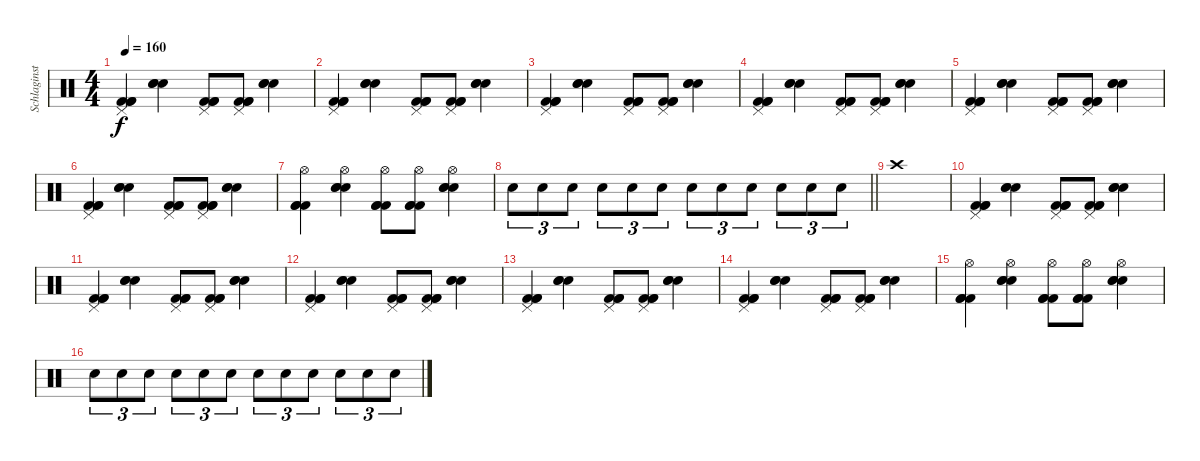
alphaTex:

\track ("Schlaginstrumente - Auswahl" "Schlaginst") {instrument percussion}
\staff {score}
\articulation defaults
\ts (4 4)
\tempo 160
\clef neutral
\ks c
("Kick (hit) 2" "Kick (hit) 2" "Kick (hit) 2" "Pedal Hi-Hat (hit)").4{dy f} ("Snare (hit) 2" "Snare (hit) 2" "Snare (hit) 2").4 ("Kick (hit) 2" "Kick (hit) 2" "Kick (hit) 2" "Pedal Hi-Hat (hit)").8 ("Kick (hit) 2" "Kick (hit) 2" "Kick (hit) 2" "Pedal Hi-Hat (hit)").8 ("Snare (hit) 2" "Snare (hit) 2" "Snare (hit) 2").4 |
("Kick (hit) 2" "Kick (hit) 2" "Kick (hit) 2" "Pedal Hi-Hat (hit)").4 ("Snare (hit) 2" "Snare (hit) 2" "Snare (hit) 2").4 ("Kick (hit) 2" "Kick (hit) 2" "Kick (hit) 2" "Pedal Hi-Hat (hit)").8 ("Kick (hit) 2" "Kick (hit) 2" "Kick (hit) 2" "Pedal Hi-Hat (hit)").8 ("Snare (hit) 2" "Snare (hit) 2" "Snare (hit) 2").4 |
("Kick (hit) 2" "Kick (hit) 2" "Kick (hit) 2" "Pedal Hi-Hat (hit)").4 ("Snare (hit) 2" "Snare (hit) 2" "Snare (hit) 2").4 ("Kick (hit) 2" "Kick (hit) 2" "Kick (hit) 2" "Pedal Hi-Hat (hit)").8 ("Kick (hit) 2" "Kick (hit) 2" "Kick (hit) 2" "Pedal Hi-Hat (hit)").8 ("Snare (hit) 2" "Snare (hit) 2" "Snare (hit) 2").4 |
("Kick (hit) 2" "Kick (hit) 2" "Kick (hit) 2" "Pedal Hi-Hat (hit)").4 ("Snare (hit) 2" "Snare (hit) 2" "Snare (hit) 2").4 ("Kick (hit) 2" "Kick (hit) 2" "Kick (hit) 2" "Pedal Hi-Hat (hit)").8 ("Kick (hit) 2" "Kick (hit) 2" "Kick (hit) 2" "Pedal Hi-Hat (hit)").8 ("Snare (hit) 2" "Snare (hit) 2" "Snare (hit) 2").4 |
("Kick (hit) 2" "Kick (hit) 2" "Kick (hit) 2" "Pedal Hi-Hat (hit)").4 ("Snare (hit) 2" "Snare (hit) 2" "Snare (hit) 2").4 ("Kick (hit) 2" "Kick (hit) 2" "Kick (hit) 2" "Pedal Hi-Hat (hit)").8 ("Kick (hit) 2" "Kick (hit) 2" "Kick (hit) 2" "Pedal Hi-Hat (hit)").8 ("Snare (hit) 2" "Snare (hit) 2" "Snare (hit) 2").4 |
("Kick (hit) 2" "Kick (hit) 2" "Kick (hit) 2" "Pedal Hi-Hat (hit)").4 ("Snare (hit) 2" "Snare (hit) 2" "Snare (hit) 2").4 ("Kick (hit) 2" "Kick (hit) 2" "Kick (hit) 2" "Pedal Hi-Hat (hit)").8 ("Kick (hit) 2" "Kick (hit) 2" "Kick (hit) 2" "Pedal Hi-Hat (hit)").8 ("Snare (hit) 2" "Snare (hit) 2" "Snare (hit) 2").4 |
("Kick (hit) 2" "Kick (hit) 2" "Kick (hit) 2" "Hi-Hat (open)").4 ("Snare (hit) 2" "Snare (hit) 2" "Snare (hit) 2" "Hi-Hat (open)").4 ("Kick (hit) 2" "Kick (hit) 2" "Kick (hit) 2" "Hi-Hat (open)").8 ("Kick (hit) 2" "Kick (hit) 2" "Kick (hit) 2" "Hi-Hat (open)").8 ("Snare (hit) 2" "Snare (hit) 2" "Snare (hit) 2" "Hi-Hat (open)").4 |
\barLineRight lightlight "Snare (hit) 2".8{tu (3 2)} "Snare (hit) 2".8{tu (3 2)} "Snare (hit) 2".8{tu (3 2)} "Snare (hit) 2".8{tu (3 2)} "Snare (hit) 2".8{tu (3 2)} "Snare (hit) 2".8{tu (3 2)} "Snare (hit) 2".8{tu (3 2)} "Snare (hit) 2".8{tu (3 2)} "Snare (hit) 2".8{tu (3 2)} "Snare (hit) 2".8{tu (3 2)} "Snare (hit) 2".8{tu (3 2)} "Snare (hit) 2".8{tu (3 2)}
|
"Crash high (hit)".1 |
("Kick (hit) 2" "Kick (hit) 2" "Kick (hit) 2" "Pedal Hi-Hat (hit)").4 ("Snare (hit) 2" "Snare (hit) 2" "Snare (hit) 2").4 ("Kick (hit) 2" "Kick (hit) 2" "Kick (hit) 2" "Pedal Hi-Hat (hit)").8 ("Kick (hit) 2" "Kick (hit) 2" "Kick (hit) 2" "Pedal Hi-Hat (hit)").8 ("Snare (hit) 2" "Snare (hit) 2" "Snare (hit) 2").4 |
("Kick (hit) 2" "Kick (hit) 2" "Kick (hit) 2" "Pedal Hi-Hat (hit)").4 ("Snare (hit) 2" "Snare (hit) 2" "Snare (hit) 2").4 ("Kick (hit) 2" "Kick (hit) 2" "Kick (hit) 2" "Pedal Hi-Hat (hit)").8 ("Kick (hit) 2" "Kick (hit) 2" "Kick (hit) 2" "Pedal Hi-Hat (hit)").8 ("Snare (hit) 2" "Snare (hit) 2" "Snare (hit) 2").4 |
("Kick (hit) 2" "Kick (hit) 2" "Kick (hit) 2" "Pedal Hi-Hat (hit)").4 ("Snare (hit) 2" "Snare (hit) 2" "Snare (hit) 2").4 ("Kick (hit) 2" "Kick (hit) 2" "Kick (hit) 2" "Pedal Hi-Hat (hit)").8 ("Kick (hit) 2" "Kick (hit) 2" "Kick (hit) 2" "Pedal Hi-Hat (hit)").8 ("Snare (hit) 2" "Snare (hit) 2" "Snare (hit) 2").4 |
("Kick (hit) 2" "Kick (hit) 2" "Kick (hit) 2" "Pedal Hi-Hat (hit)").4 ("Snare (hit) 2" "Snare (hit) 2" "Snare (hit) 2").4 ("Kick (hit) 2" "Kick (hit) 2" "Kick (hit) 2" "Pedal Hi-Hat (hit)").8 ("Kick (hit) 2" "Kick (hit) 2" "Kick (hit) 2" "Pedal Hi-Hat (hit)").8 ("Snare (hit) 2" "Snare (hit) 2" "Snare (hit) 2").4 |
("Kick (hit) 2" "Kick (hit) 2" "Kick (hit) 2" "Pedal Hi-Hat (hit)").4 ("Snare (hit) 2" "Snare (hit) 2" "Snare (hit) 2").4 ("Kick (hit) 2" "Kick (hit) 2" "Kick (hit) 2" "Pedal Hi-Hat (hit)").8 ("Kick (hit) 2" "Kick (hit) 2" "Kick (hit) 2" "Pedal Hi-Hat (hit)").8 ("Snare (hit) 2" "Snare (hit) 2" "Snare (hit) 2").4 |
("Kick (hit) 2" "Kick (hit) 2" "Kick (hit) 2" "Hi-Hat (open)").4 ("Snare (hit) 2" "Snare (hit) 2" "Snare (hit) 2" "Hi-Hat (open)").4 ("Kick (hit) 2" "Kick (hit) 2" "Kick (hit) 2" "Hi-Hat (open)").8 ("Kick (hit) 2" "Kick (hit) 2" "Kick (hit) 2" "Hi-Hat (open)").8 ("Snare (hit) 2" "Snare (hit) 2" "Snare (hit) 2" "Hi-Hat (open)").4 |
"Snare (hit) 2".8{tu (3 2)} "Snare (hit) 2".8{tu (3 2)} "Snare (hit) 2".8{tu (3 2)} "Snare (hit) 2".8{tu (3 2)} "Snare (hit) 2".8{tu (3 2)} "Snare (hit) 2".8{tu (3 2)} "Snare (hit) 2".8{tu (3 2)} "Snare (hit) 2".8{tu (3 2)} "Snare (hit) 2".8{tu (3 2)} "Snare (hit) 2".8{tu (3 2)} "Snare (hit) 2".8{tu (3 2)} "Snare (hit) 2".8{tu (3 2)}
